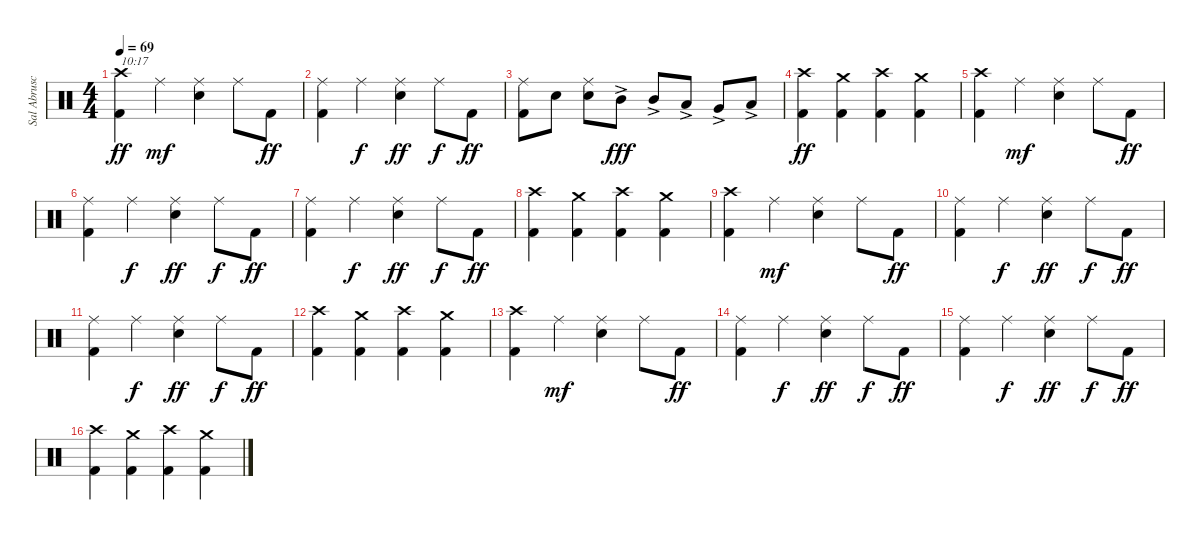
\track ("Sal Abruscato (Drums)" "Sal Abrusc") {instrument percussion}
\staff {score}
\articulation defaults
\ts (4 4)
\tempo 69
\clef neutral
\ks c
("Kick (hit) 2" "Crash high (hit)").4{txt "10:17" dy ff} "Ride (middle)".4{dy mf} ("Electric Snare (hit)" "Ride (middle)").4 "Ride (middle)".8 "Kick (hit) 2".8{dy ff} |
("Kick (hit) 2" "Ride (middle)").4 "Ride (middle)".4{dy f} ("Electric Snare (hit)" "Ride (middle)").4{dy ff} "Ride (middle)".8{dy f} "Kick (hit) 2".8{dy ff} |
("Kick (hit) 2" "Ride (middle)").8 "Electric Snare (hit)".8 ("Electric Snare (hit)" "Ride (middle)").8 "Mid Tom (hit)"{ac}.8{dy fff} "Mid Tom (hit)"{ac}.8 "Low Tom (hit)"{ac}.8 "Very Low Tom (hit)"{ac}.8 "Low Floor Tom (hit)"{ac}.8 |
("Kick (hit) 2" "Crash high (hit)").4{dy ff} ("Kick (hit) 2" "Crash medium (hit)").4 ("Kick (hit) 2" "Crash high (hit)").4 ("Kick (hit) 2" "Crash medium (hit)").4 |
("Kick (hit) 2" "Crash high (hit)").4{volume 12} "Ride (middle)".4{dy mf} ("Electric Snare (hit)" "Ride (middle)").4 "Ride (middle)".8 "Kick (hit) 2".8{dy ff} |
("Kick (hit) 2" "Ride (middle)").4 "Ride (middle)".4{dy f} ("Electric Snare (hit)" "Ride (middle)").4{dy ff} "Ride (middle)".8{dy f} "Kick (hit) 2".8{dy ff} |
("Kick (hit) 2" "Ride (middle)").4 "Ride (middle)".4{dy f} ("Electric Snare (hit)" "Ride (middle)").4{dy ff} "Ride (middle)".8{dy f} "Kick (hit) 2".8{dy ff} |
("Kick (hit) 2" "Crash high (hit)").4 ("Kick (hit) 2" "Crash medium (hit)").4 ("Kick (hit) 2" "Crash high (hit)").4 ("Kick (hit) 2" "Crash medium (hit)").4 |
("Kick (hit) 2" "Crash high (hit)").4{volume 8} "Ride (middle)".4{dy mf} ("Electric Snare (hit)" "Ride (middle)").4 "Ride (middle)".8 "Kick (hit) 2".8{dy ff} |
("Kick (hit) 2" "Ride (middle)").4 "Ride (middle)".4{dy f} ("Electric Snare (hit)" "Ride (middle)").4{dy ff} "Ride (middle)".8{dy f} "Kick (hit) 2".8{dy ff} |
("Kick (hit) 2" "Ride (middle)").4 "Ride (middle)".4{dy f} ("Electric Snare (hit)" "Ride (middle)").4{dy ff} "Ride (middle)".8{dy f} "Kick (hit) 2".8{dy ff} |
("Kick (hit) 2" "Crash high (hit)").4 ("Kick (hit) 2" "Crash medium (hit)").4 ("Kick (hit) 2" "Crash high (hit)").4 ("Kick (hit) 2" "Crash medium (hit)").4 |
("Kick (hit) 2" "Crash high (hit)").4{volume 4} "Ride (middle)".4{dy mf} ("Electric Snare (hit)" "Ride (middle)").4 "Ride (middle)".8 "Kick (hit) 2".8{dy ff} |
("Kick (hit) 2" "Ride (middle)").4 "Ride (middle)".4{dy f} ("Electric Snare (hit)" "Ride (middle)").4{dy ff} "Ride (middle)".8{dy f} "Kick (hit) 2".8{dy ff} |
("Kick (hit) 2" "Ride (middle)").4 "Ride (middle)".4{dy f} ("Electric Snare (hit)" "Ride (middle)").4{dy ff} "Ride (middle)".8{dy f} "Kick (hit) 2".8{dy ff} |
("Kick (hit) 2" "Crash high (hit)").4 ("Kick (hit) 2" "Crash medium (hit)").4 ("Kick (hit) 2" "Crash high (hit)").4 ("Kick (hit) 2" "Crash medium (hit)").4
